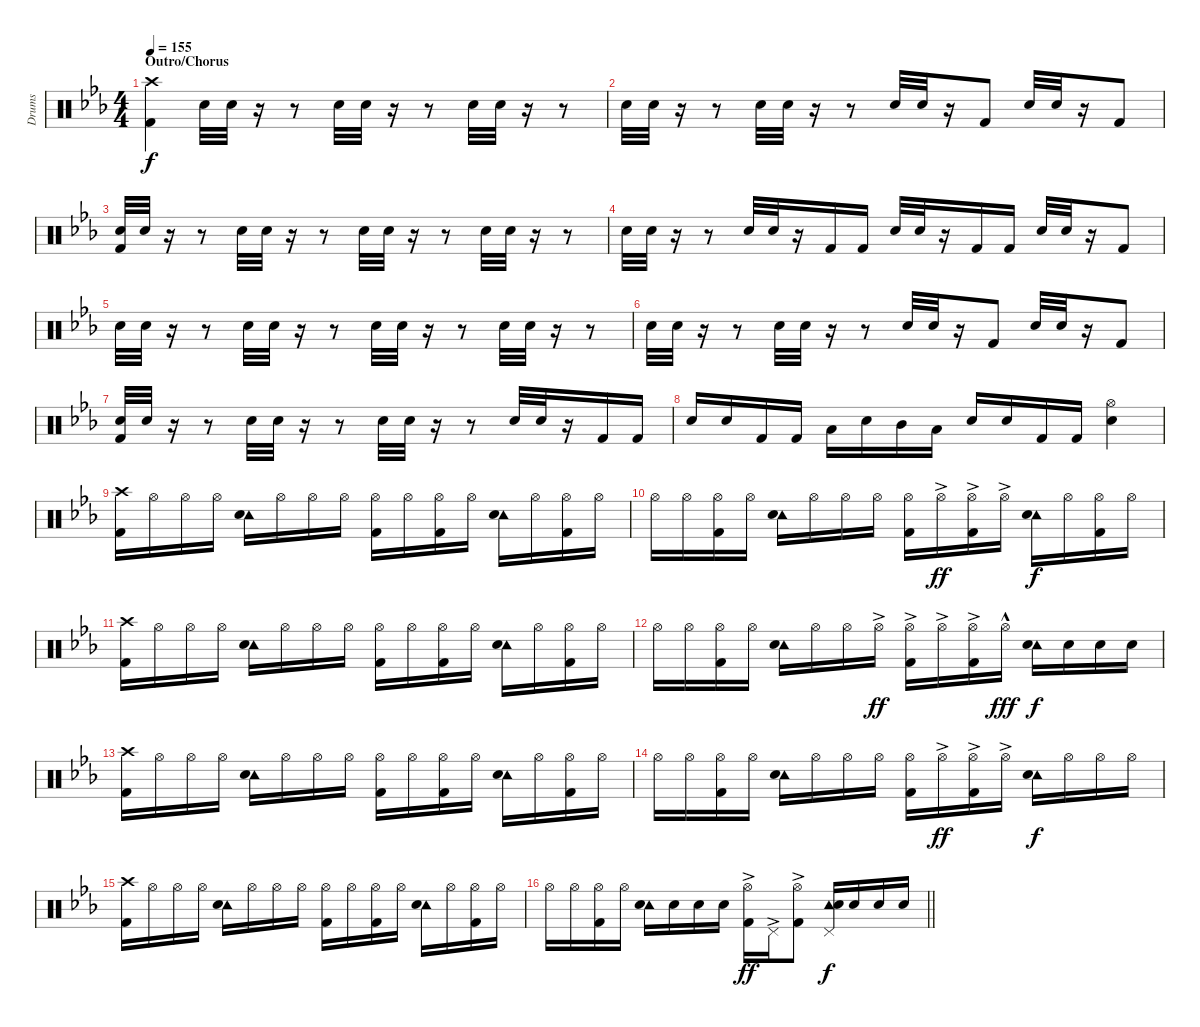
\track ("Drums" "Drums") {instrument percussion}
\staff {score}
\articulation defaults
\ts (4 4)
\section ("" "Outro/Chorus")
\tempo 155
\clef neutral
\ks eb
("Crash high (hit)" "Kick (hit) 2").4{dy f} "Snare (hit) 2".32 "Snare (hit) 2".32 r.16 r.8 "Snare (hit) 2".32 "Snare (hit) 2".32 r.16 r.8 "Snare (hit) 2".32 "Snare (hit) 2".32 r.16 r.8 |
"Snare (hit) 2".32 "Snare (hit) 2".32 r.16 r.8 "Snare (hit) 2".32 "Snare (hit) 2".32 r.16 r.8 "Snare (hit) 2".32 "Snare (hit) 2".32 r.16 "Kick (hit) 2".8 "Snare (hit) 2".32 "Snare (hit) 2".32 r.16 "Kick (hit) 2".8 |
("Snare (hit) 2" "Kick (hit) 2").32 "Snare (hit) 2".32 r.16 r.8 "Snare (hit) 2".32 "Snare (hit) 2".32 r.16 r.8 "Snare (hit) 2".32 "Snare (hit) 2".32 r.16 r.8 "Snare (hit) 2".32 "Snare (hit) 2".32 r.16 r.8 |
"Snare (hit) 2".32 "Snare (hit) 2".32 r.16 r.8 "Snare (hit) 2".32 "Snare (hit) 2".32 r.16 "Kick (hit) 2".16 "Kick (hit) 2".16 "Snare (hit) 2".32 "Snare (hit) 2".32 r.16 "Kick (hit) 2".16 "Kick (hit) 2".16 "Snare (hit) 2".32 "Snare (hit) 2".32 r.16 "Kick (hit) 2".8 |
"Snare (hit) 2".32 "Snare (hit) 2".32 r.16 r.8 "Snare (hit) 2".32 "Snare (hit) 2".32 r.16 r.8 "Snare (hit) 2".32 "Snare (hit) 2".32 r.16 r.8 "Snare (hit) 2".32 "Snare (hit) 2".32 r.16 r.8 |
"Snare (hit) 2".32 "Snare (hit) 2".32 r.16 r.8 "Snare (hit) 2".32 "Snare (hit) 2".32 r.16 r.8 "Snare (hit) 2".32 "Snare (hit) 2".32 r.16 "Kick (hit) 2".8 "Snare (hit) 2".32 "Snare (hit) 2".32 r.16 "Kick (hit) 2".8 |
("Snare (hit) 2" "Kick (hit) 2").32 "Snare (hit) 2".32 r.16 r.8 "Snare (hit) 2".32 "Snare (hit) 2".32 r.16 r.8 "Snare (hit) 2".32 "Snare (hit) 2".32 r.16 r.8 "Snare (hit) 2".32 "Snare (hit) 2".32 r.16 "Kick (hit) 2".16 "Kick (hit) 2".16 |
"Snare (hit) 2".16 "Snare (hit) 2".16 "Kick (hit) 2".16 "Kick (hit) 2".16 "Low Tom (hit)".16 "Snare (hit) 2".16 "Mid Tom (hit)".16 "Low Tom (hit)".16 "Snare (hit) 2".16 "Snare (hit) 2".16 "Kick (hit) 2".16 "Kick (hit) 2".16 ("Hi-Hat (open)" "Snare (hit) 2").4 |
("Crash high (hit)" "Kick (hit) 2").16 "Hi-Hat (open)".16 "Hi-Hat (open)".16 "Hi-Hat (open)".16 ("Tambourine (hit)" "Snare (hit) 2").16 "Hi-Hat (open)".16 "Hi-Hat (open)".16 "Hi-Hat (open)".16 ("Hi-Hat (open)" "Kick (hit) 2").16 "Hi-Hat (open)".16 ("Hi-Hat (open)" "Kick (hit) 2").16 "Hi-Hat (open)".16 ("Tambourine (hit)" "Snare (hit) 2").16 "Hi-Hat (open)".16 ("Hi-Hat (open)" "Kick (hit) 2").16 "Hi-Hat (open)".16 |
"Hi-Hat (open)".16 "Hi-Hat (open)".16 ("Hi-Hat (open)" "Kick (hit) 2").16 "Hi-Hat (open)".16 ("Tambourine (hit)" "Snare (hit) 2").16 "Hi-Hat (open)".16 "Hi-Hat (open)".16 "Hi-Hat (open)".16 ("Hi-Hat (open)" "Kick (hit) 2").16 "Hi-Hat (open)"{ac}.16{dy ff} ("Hi-Hat (open)"{ac} "Kick (hit) 2").16 "Hi-Hat (open)"{ac}.16 ("Tambourine (hit)" "Snare (hit) 2").16{dy f} "Hi-Hat (open)".16 ("Hi-Hat (open)" "Kick (hit) 2").16 "Hi-Hat (open)".16 |
("Crash high (hit)" "Kick (hit) 2").16 "Hi-Hat (open)".16 "Hi-Hat (open)".16 "Hi-Hat (open)".16 ("Tambourine (hit)" "Snare (hit) 2").16 "Hi-Hat (open)".16 "Hi-Hat (open)".16 "Hi-Hat (open)".16 ("Hi-Hat (open)" "Kick (hit) 2").16 "Hi-Hat (open)".16 ("Hi-Hat (open)" "Kick (hit) 2").16 "Hi-Hat (open)".16 ("Tambourine (hit)" "Snare (hit) 2").16 "Hi-Hat (open)".16 ("Hi-Hat (open)" "Kick (hit) 2").16 "Hi-Hat (open)".16 |
"Hi-Hat (open)".16 "Hi-Hat (open)".16 ("Hi-Hat (open)" "Kick (hit) 2").16 "Hi-Hat (open)".16 ("Tambourine (hit)" "Snare (hit) 2").16 "Hi-Hat (open)".16 "Hi-Hat (open)".16 "Hi-Hat (open)"{ac}.16{dy ff} ("Hi-Hat (open)"{ac} "Kick (hit) 2").16 "Hi-Hat (open)"{ac}.16 ("Hi-Hat (open)"{ac} "Kick (hit) 2").16 "Hi-Hat (open)"{hac}.16{dy fff} ("Tambourine (hit)" "Snare (hit) 2").16{dy f} "Snare (hit) 2".16 "Snare (hit) 2".16 "Snare (hit) 2".16 |
("Crash high (hit)" "Kick (hit) 2").16 "Hi-Hat (open)".16 "Hi-Hat (open)".16 "Hi-Hat (open)".16 ("Tambourine (hit)" "Snare (hit) 2").16 "Hi-Hat (open)".16 "Hi-Hat (open)".16 "Hi-Hat (open)".16 ("Hi-Hat (open)" "Kick (hit) 2").16 "Hi-Hat (open)".16 ("Hi-Hat (open)" "Kick (hit) 2").16 "Hi-Hat (open)".16 ("Tambourine (hit)" "Snare (hit) 2").16 "Hi-Hat (open)".16 ("Hi-Hat (open)" "Kick (hit) 2").16 "Hi-Hat (open)".16 |
"Hi-Hat (open)".16 "Hi-Hat (open)".16 ("Hi-Hat (open)" "Kick (hit) 2").16 "Hi-Hat (open)".16 ("Tambourine (hit)" "Snare (hit) 2").16 "Hi-Hat (open)".16 "Hi-Hat (open)".16 "Hi-Hat (open)".16 ("Hi-Hat (open)" "Kick (hit) 2").16 "Hi-Hat (open)"{ac}.16{dy ff} ("Hi-Hat (open)"{ac} "Kick (hit) 2").16 "Hi-Hat (open)"{ac}.16 ("Tambourine (hit)" "Snare (hit) 2").16{dy f} "Hi-Hat (open)".16 "Hi-Hat (open)".16 "Hi-Hat (open)".16 |
("Crash high (hit)" "Kick (hit) 2").16 "Hi-Hat (open)".16 "Hi-Hat (open)".16 "Hi-Hat (open)".16 ("Tambourine (hit)" "Snare (hit) 2").16 "Hi-Hat (open)".16 "Hi-Hat (open)".16 "Hi-Hat (open)".16 ("Hi-Hat (open)" "Kick (hit) 2").16 "Hi-Hat (open)".16 ("Hi-Hat (open)" "Kick (hit) 2").16 "Hi-Hat (open)".16 ("Tambourine (hit)" "Snare (hit) 2").16 "Hi-Hat (open)".16 ("Hi-Hat (open)" "Kick (hit) 2").16 "Hi-Hat (open)".16 |
\barLineRight lightlight "Hi-Hat (open)".16 "Hi-Hat (open)".16
("Hi-Hat (open)" "Kick (hit) 2").16 "Hi-Hat (open)".16 ("Tambourine (hit)" "Snare (hit) 2").16 "Snare (hit) 2".16 "Snare (hit) 2".16 "Snare (hit) 2".16 ("Hi-Hat (open)"{ac} "Kick (hit) 2").16{dy ff} "Pedal Hi-Hat (hit)"{ac}.16 ("Hi-Hat (open)"{ac} "Kick (hit) 2").8 ("Tambourine (hit)" "Pedal Hi-Hat (hit)" "Snare (hit) 2").16{dy f} "Snare (hit) 2".16 "Snare (hit) 2".16 "Snare (hit) 2".16
